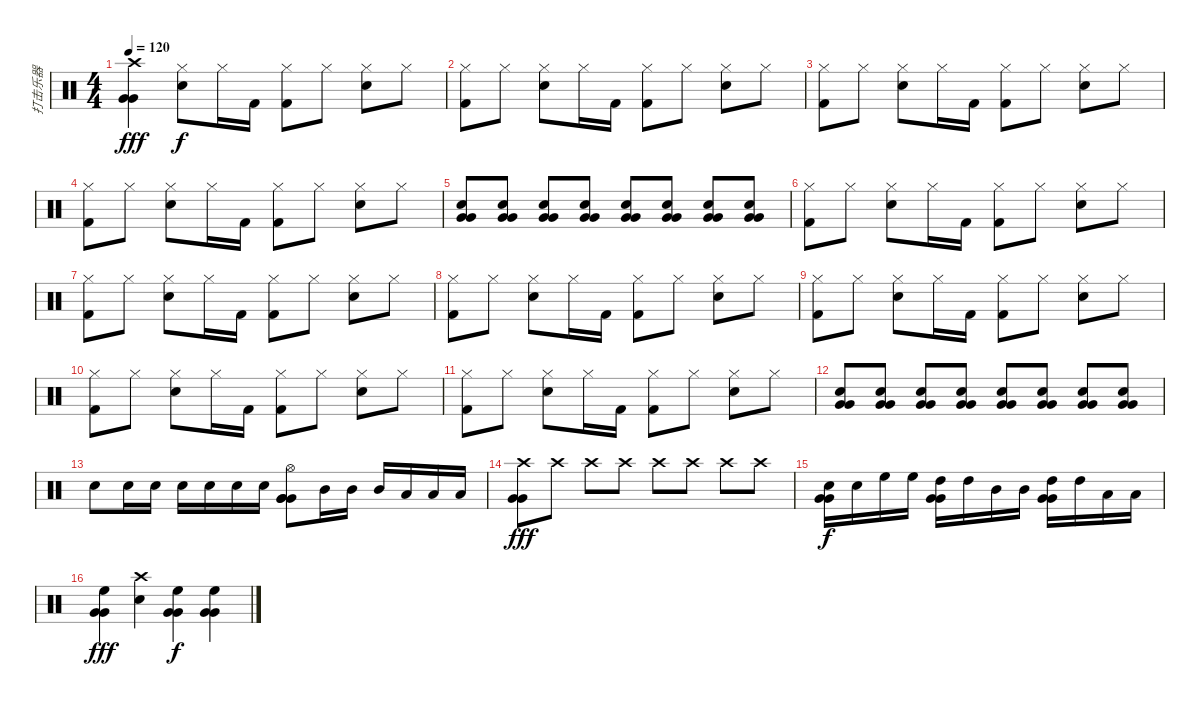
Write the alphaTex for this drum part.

\track ("打击乐器" "打击乐器") {instrument percussion}
\staff {score}
\articulation defaults
\ts (4 4)
\tempo 120
\clef neutral
\ks c
("Crash high (hit)" "Very Low Tom (hit)" "Very Low Tom (hit)").4{dy fff} ("Hi-Hat (closed)" "Snare (hit) 2").8{dy f} "Hi-Hat (closed)".16 "Kick (hit) 2".16 ("Hi-Hat (closed)" "Kick (hit) 2").8 "Hi-Hat (closed)".8 ("Hi-Hat (closed)" "Snare (hit) 2").8 "Hi-Hat (closed)".8 |
("Hi-Hat (closed)" "Kick (hit) 2").8 "Hi-Hat (closed)".8 ("Hi-Hat (closed)" "Snare (hit) 2").8 "Hi-Hat (closed)".16 "Kick (hit) 2".16 ("Hi-Hat (closed)" "Kick (hit) 2").8 "Hi-Hat (closed)".8 ("Hi-Hat (closed)" "Snare (hit) 2").8 "Hi-Hat (closed)".8 |
("Hi-Hat (closed)" "Kick (hit) 2").8 "Hi-Hat (closed)".8 ("Hi-Hat (closed)" "Snare (hit) 2").8 "Hi-Hat (closed)".16 "Kick (hit) 2".16 ("Hi-Hat (closed)" "Kick (hit) 2").8 "Hi-Hat (closed)".8 ("Hi-Hat (closed)" "Snare (hit) 2").8 "Hi-Hat (closed)".8 |
("Hi-Hat (closed)" "Kick (hit) 2").8 "Hi-Hat (closed)".8 ("Hi-Hat (closed)" "Snare (hit) 2").8 "Hi-Hat (closed)".16 "Kick (hit) 2".16 ("Hi-Hat (closed)" "Kick (hit) 2").8 "Hi-Hat (closed)".8 ("Hi-Hat (closed)" "Snare (hit) 2").8 "Hi-Hat (closed)".8 |
("Electric Snare (hit)" "Very Low Tom (hit)" "Very Low Tom (hit)").8 ("Electric Snare (hit)" "Very Low Tom (hit)" "Very Low Tom (hit)").8 ("Electric Snare (hit)" "Very Low Tom (hit)" "Very Low Tom (hit)").8 ("Electric Snare (hit)" "Very Low Tom (hit)" "Very Low Tom (hit)").8 ("Electric Snare (hit)" "Very Low Tom (hit)" "Very Low Tom (hit)").8 ("Electric Snare (hit)" "Very Low Tom (hit)" "Very Low Tom (hit)").8 ("Electric Snare (hit)" "Very Low Tom (hit)" "Very Low Tom (hit)").8 ("Electric Snare (hit)" "Very Low Tom (hit)" "Very Low Tom (hit)").8 |
("Hi-Hat (closed)" "Kick (hit) 2").8 "Hi-Hat (closed)".8 ("Hi-Hat (closed)" "Snare (hit) 2").8 "Hi-Hat (closed)".16 "Kick (hit) 2".16 ("Hi-Hat (closed)" "Kick (hit) 2").8 "Hi-Hat (closed)".8 ("Hi-Hat (closed)" "Snare (hit) 2").8 "Hi-Hat (closed)".8 |
("Hi-Hat (closed)" "Kick (hit) 2").8 "Hi-Hat (closed)".8 ("Hi-Hat (closed)" "Snare (hit) 2").8 "Hi-Hat (closed)".16 "Kick (hit) 2".16 ("Hi-Hat (closed)" "Kick (hit) 2").8 "Hi-Hat (closed)".8 ("Hi-Hat (closed)" "Snare (hit) 2").8 "Hi-Hat (closed)".8 |
("Hi-Hat (closed)" "Kick (hit) 2").8 "Hi-Hat (closed)".8 ("Hi-Hat (closed)" "Snare (hit) 2").8 "Hi-Hat (closed)".16 "Kick (hit) 2".16 ("Hi-Hat (closed)" "Kick (hit) 2").8 "Hi-Hat (closed)".8 ("Hi-Hat (closed)" "Snare (hit) 2").8 "Hi-Hat (closed)".8 |
("Hi-Hat (closed)" "Kick (hit) 2").8 "Hi-Hat (closed)".8 ("Hi-Hat (closed)" "Snare (hit) 2").8 "Hi-Hat (closed)".16 "Kick (hit) 2".16 ("Hi-Hat (closed)" "Kick (hit) 2").8 "Hi-Hat (closed)".8 ("Hi-Hat (closed)" "Snare (hit) 2").8 "Hi-Hat (closed)".8 |
("Hi-Hat (closed)" "Kick (hit) 2").8 "Hi-Hat (closed)".8 ("Hi-Hat (closed)" "Snare (hit) 2").8 "Hi-Hat (closed)".16 "Kick (hit) 2".16 ("Hi-Hat (closed)" "Kick (hit) 2").8 "Hi-Hat (closed)".8 ("Hi-Hat (closed)" "Snare (hit) 2").8 "Hi-Hat (closed)".8 |
("Hi-Hat (closed)" "Kick (hit) 2").8 "Hi-Hat (closed)".8 ("Hi-Hat (closed)" "Snare (hit) 2").8 "Hi-Hat (closed)".16 "Kick (hit) 2".16 ("Hi-Hat (closed)" "Kick (hit) 2").8 "Hi-Hat (closed)".8 ("Hi-Hat (closed)" "Snare (hit) 2").8 "Hi-Hat (closed)".8 |
("Electric Snare (hit)" "Very Low Tom (hit)" "Very Low Tom (hit)").8 ("Electric Snare (hit)" "Very Low Tom (hit)" "Very Low Tom (hit)").8 ("Electric Snare (hit)" "Very Low Tom (hit)" "Very Low Tom (hit)").8 ("Electric Snare (hit)" "Very Low Tom (hit)" "Very Low Tom (hit)").8 ("Electric Snare (hit)" "Very Low Tom (hit)" "Very Low Tom (hit)").8 ("Electric Snare (hit)" "Very Low Tom (hit)" "Very Low Tom (hit)").8 ("Electric Snare (hit)" "Very Low Tom (hit)" "Very Low Tom (hit)").8 ("Electric Snare (hit)" "Very Low Tom (hit)" "Very Low Tom (hit)").8 |
"Electric Snare (hit)".8 "Electric Snare (hit)".16 "Electric Snare (hit)".16 "Electric Snare (hit)".16 "Electric Snare (hit)".16 "Electric Snare (hit)".16 "Electric Snare (hit)".16 ("Very Low Tom (hit)" "Hi-Hat (open)" "Very Low Tom (hit)" "Very Low Tom (hit)").8 "Mid Tom (hit)".16 "Mid Tom (hit)".16 "Mid Tom (hit)".16 "Low Tom (hit)".16 "Low Tom (hit)".16 "Low Tom (hit)".16 |
("Crash high (hit)" "Very Low Tom (hit)" "Very Low Tom (hit)").8{dy fff} "Crash high (hit)".8 "Crash high (hit)".8 "Crash high (hit)".8 "Crash high (hit)".8 "Crash high (hit)".8 "Crash high (hit)".8 "Crash high (hit)".8 |
("Electric Snare (hit)" "Very Low Tom (hit)" "Very Low Tom (hit)").16{dy f} "Electric Snare (hit)".16 "High Floor Tom (hit)".16 "High Floor Tom (hit)".16 ("High Tom (hit)" "Very Low Tom (hit)" "Very Low Tom (hit)").16 "High Tom (hit)".16 "Mid Tom (hit)".16 "Mid Tom (hit)".16 ("High Tom (hit)" "Very Low Tom (hit)" "Very Low Tom (hit)").16 "High Tom (hit)".16 "Low Tom (hit)".16 "Low Tom (hit)".16 |
("High Floor Tom (hit)" "Very Low Tom (hit)" "Very Low Tom (hit)").4{dy fff} ("Crash high (hit)" "Electric Snare (hit)").4 ("High Floor Tom (hit)" "Very Low Tom (hit)" "Very Low Tom (hit)").4{dy f} ("High Floor Tom (hit)" "Very Low Tom (hit)" "Very Low Tom (hit)").4
